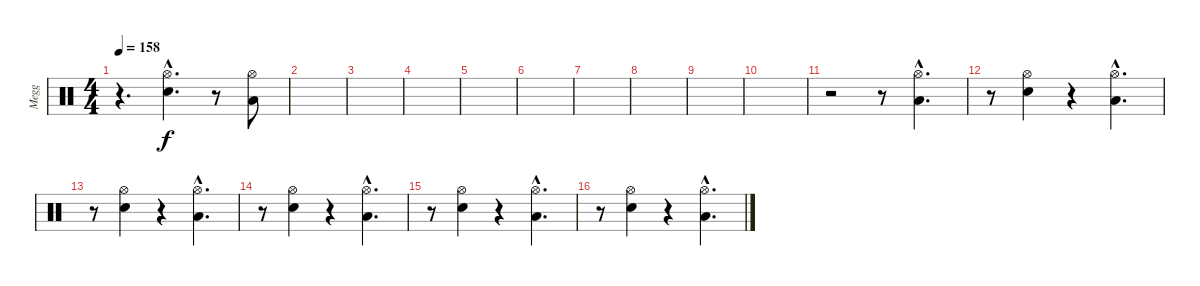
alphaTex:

\track ("Megg" "Megg") {instrument percussion}
\staff {score}
\articulation defaults
\ts (4 4)
\tempo 158
\clef neutral
\ks c
r.4{d dy f} ("Electric Snare (hit)"{hac} "Hi-Hat (open)"{hac}).4{d} r.8 ("Low Tom (hit)" "Hi-Hat (open)").8 |
|
|
|
|
|
|
|
|
|
r.2 r.8 ("Low Tom (hit)"{hac} "Hi-Hat (open)"{hac}).4{d} |
r.8 ("Electric Snare (hit)" "Hi-Hat (open)").4 r.4 ("Low Tom (hit)"{hac} "Hi-Hat (open)"{hac}).4{d} |
r.8 ("Electric Snare (hit)" "Hi-Hat (open)").4 r.4 ("Low Tom (hit)"{hac} "Hi-Hat (open)"{hac}).4{d} |
r.8 ("Electric Snare (hit)" "Hi-Hat (open)").4 r.4 ("Low Tom (hit)"{hac} "Hi-Hat (open)"{hac}).4{d} |
r.8 ("Electric Snare (hit)" "Hi-Hat (open)").4 r.4 ("Low Tom (hit)"{hac} "Hi-Hat (open)"{hac}).4{d} |
r.8 ("Electric Snare (hit)" "Hi-Hat (open)").4 r.4 ("Low Tom (hit)"{hac} "Hi-Hat (open)"{hac}).4{d}
